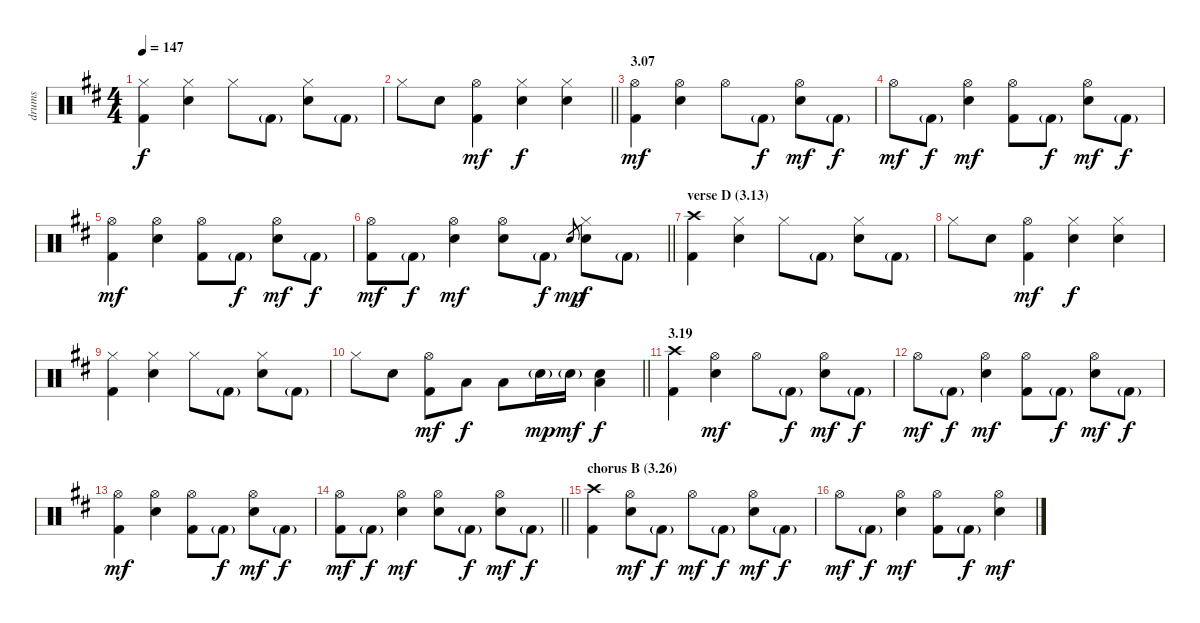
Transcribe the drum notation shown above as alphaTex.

\track ("drums" "drums") {instrument percussion}
\staff {score}
\articulation defaults
\ts (4 4)
\tempo 147
\clef neutral
\ks d
("Hi-Hat (closed)" "Kick (hit) 2").4{dy f} ("Hi-Hat (closed)" "Electric Snare (hit)").4 "Hi-Hat (closed)".8 "Kick (hit) 2"{g}.8 ("Hi-Hat (closed)" "Electric Snare (hit)").8 "Kick (hit) 2"{g}.8 |
\barLineRight lightlight "Hi-Hat (closed)".8 "Electric Snare (hit)".8
("Hi-Hat (open)" "Kick (hit) 2").4{dy mf} ("Hi-Hat (closed)" "Electric Snare (hit)").4{dy f} ("Hi-Hat (closed)" "Electric Snare (hit)").4 |
\section ("" "3.07")
("Hi-Hat (open)" "Kick (hit) 2").4{dy mf} ("Hi-Hat (open)" "Electric Snare (hit)").4 "Hi-Hat (open)".8 "Kick (hit) 2"{g}.8{dy f} ("Hi-Hat (open)" "Electric Snare (hit)").8{dy mf} "Kick (hit) 2"{g}.8{dy f} |
"Hi-Hat (open)".8{dy mf} "Kick (hit) 2"{g}.8{dy f} ("Hi-Hat (open)" "Electric Snare (hit)").4{dy mf} ("Hi-Hat (open)" "Kick (hit) 2").8 "Kick (hit) 2"{g}.8{dy f} ("Hi-Hat (open)" "Electric Snare (hit)").8{dy mf} "Kick (hit) 2"{g}.8{dy f} |
("Hi-Hat (open)" "Kick (hit) 2").4{dy mf} ("Hi-Hat (open)" "Electric Snare (hit)").4 ("Hi-Hat (open)" "Kick (hit) 2").8 "Kick (hit) 2"{g}.8{dy f} ("Hi-Hat (open)" "Electric Snare (hit)").8{dy mf} "Kick (hit) 2"{g}.8{dy f} |
\barLineRight lightlight
("Hi-Hat (open)" "Kick (hit) 2").8{dy mf} "Kick (hit) 2"{g}.8{dy f} ("Hi-Hat (open)" "Electric Snare (hit)").4{dy mf} ("Hi-Hat (open)" "Electric Snare (hit)").8 "Kick (hit) 2"{g}.8{dy f} "Electric Snare (hit)".8{gr dy mp} ("Hi-Hat (closed)" "Electric Snare (hit)").8{dy f} "Kick (hit) 2"{g}.8 |
\section ("" "verse D (3.13)")
("Crash high (hit)" "Kick (hit) 2").4 ("Hi-Hat (closed)" "Electric Snare (hit)").4 "Hi-Hat (closed)".8 "Kick (hit) 2"{g}.8 ("Hi-Hat (closed)" "Electric Snare (hit)").8 "Kick (hit) 2"{g}.8 |
"Hi-Hat (closed)".8 "Electric Snare (hit)".8 ("Hi-Hat (open)" "Kick (hit) 2").4{dy mf} ("Hi-Hat (closed)" "Electric Snare (hit)").4{dy f} ("Hi-Hat (closed)" "Electric Snare (hit)").4 |
("Hi-Hat (closed)" "Kick (hit) 2").4 ("Hi-Hat (closed)" "Electric Snare (hit)").4 "Hi-Hat (closed)".8 "Kick (hit) 2"{g}.8 ("Hi-Hat (closed)" "Electric Snare (hit)").8 "Kick (hit) 2"{g}.8 |
\barLineRight lightlight "Hi-Hat (closed)".8 "Electric Snare (hit)".8
("Hi-Hat (open)" "Kick (hit) 2").8{dy mf} "Low Tom (hit)".8{dy f} "Low Tom (hit)".8 "Electric Snare (hit)"{g}.16{dy mp} "Electric Snare (hit)"{g}.16{dy mf} ("Low Tom (hit)" "Electric Snare (hit)").4{dy f} |
\section ("" "3.19")
("Crash high (hit)" "Kick (hit) 2").4 ("Hi-Hat (open)" "Electric Snare (hit)").4{dy mf} "Hi-Hat (open)".8 "Kick (hit) 2"{g}.8{dy f} ("Hi-Hat (open)" "Electric Snare (hit)").8{dy mf} "Kick (hit) 2"{g}.8{dy f} |
"Hi-Hat (open)".8{dy mf} "Kick (hit) 2"{g}.8{dy f} ("Hi-Hat (open)" "Electric Snare (hit)").4{dy mf} ("Hi-Hat (open)" "Kick (hit) 2").8 "Kick (hit) 2"{g}.8{dy f} ("Hi-Hat (open)" "Electric Snare (hit)").8{dy mf} "Kick (hit) 2"{g}.8{dy f} |
("Hi-Hat (open)" "Kick (hit) 2").4{dy mf} ("Hi-Hat (open)" "Electric Snare (hit)").4 ("Hi-Hat (open)" "Kick (hit) 2").8 "Kick (hit) 2"{g}.8{dy f} ("Hi-Hat (open)" "Electric Snare (hit)").8{dy mf} "Kick (hit) 2"{g}.8{dy f} |
\barLineRight lightlight
("Hi-Hat (open)" "Kick (hit) 2").8{dy mf} "Kick (hit) 2"{g}.8{dy f} ("Hi-Hat (open)" "Electric Snare (hit)").4{dy mf} ("Hi-Hat (open)" "Electric Snare (hit)").8 "Kick (hit) 2"{g}.8{dy f} ("Hi-Hat (open)" "Electric Snare (hit)").8{dy mf} "Kick (hit) 2"{g}.8{dy f} |
\section ("" "chorus B (3.26)")
("Crash high (hit)" "Kick (hit) 2").4 ("Hi-Hat (open)" "Electric Snare (hit)").8{dy mf} "Kick (hit) 2"{g}.8{dy f} "Hi-Hat (open)".8{dy mf} "Kick (hit) 2"{g}.8{dy f} ("Hi-Hat (open)" "Electric Snare (hit)").8{dy mf} "Kick (hit) 2"{g}.8{dy f} |
"Hi-Hat (open)".8{dy mf} "Kick (hit) 2"{g}.8{dy f} ("Hi-Hat (open)" "Electric Snare (hit)").4{dy mf} ("Hi-Hat (open)" "Kick (hit) 2").8 "Kick (hit) 2"{g}.8{dy f} ("Hi-Hat (open)" "Electric Snare (hit)").4{dy mf}
